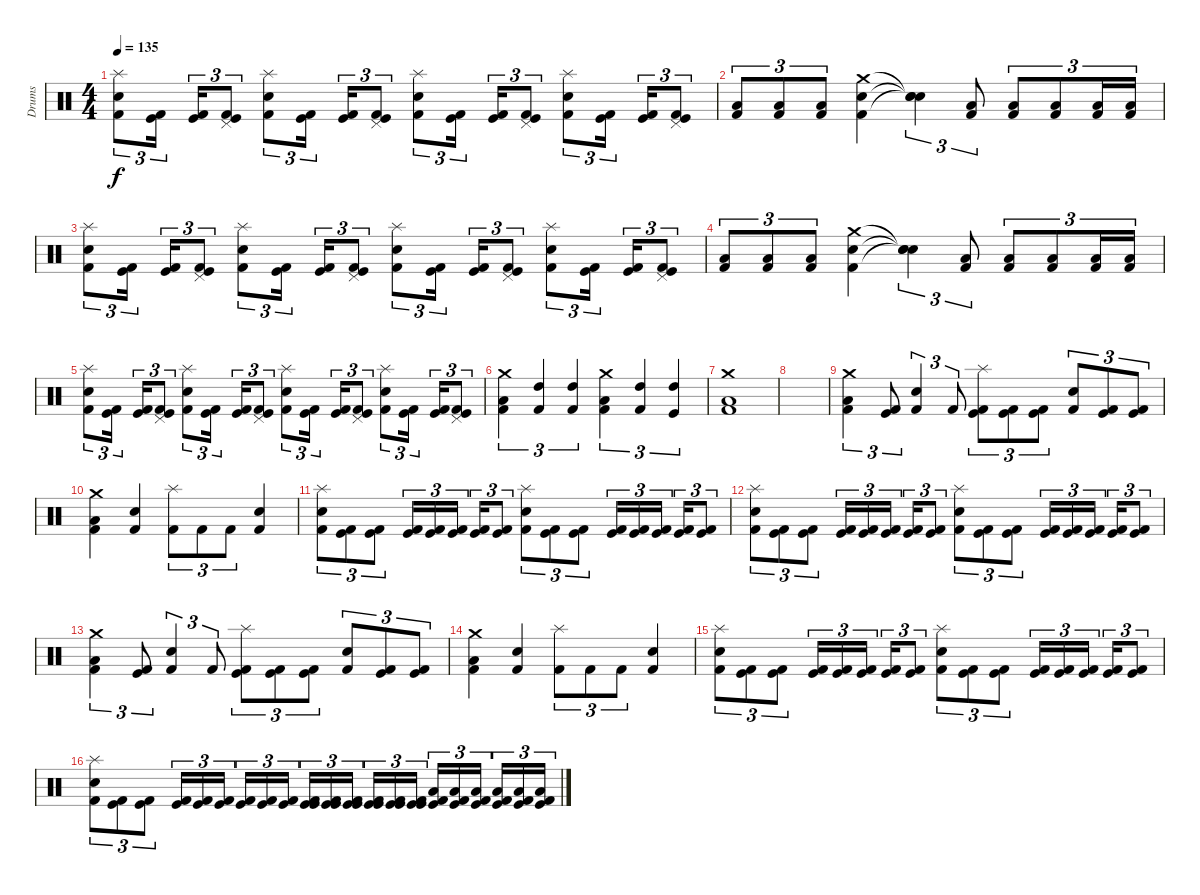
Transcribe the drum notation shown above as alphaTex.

\track ("Drums" "Drums") {instrument percussion}
\staff {score}
\articulation defaults
\ts (4 4)
\tempo 135
\clef neutral
\ks c
("Splash (hit)" "Snare (hit) 2" "Kick (hit) 2").8{tu (3 2) dy f} ("Kick (hit)" "Kick (hit) 2").16{tu (3 2)} ("Kick (hit)" "Kick (hit) 2").16{tu (3 2)} ("Pedal Hi-Hat (hit)" "Kick (hit)" "Kick (hit) 2").8{tu (3 2)} ("Splash (hit)" "Snare (hit) 2" "Kick (hit) 2").8{tu (3 2)} ("Kick (hit)" "Kick (hit) 2").16{tu (3 2)} ("Kick (hit)" "Kick (hit) 2").16{tu (3 2)} ("Pedal Hi-Hat (hit)" "Kick (hit)" "Kick (hit) 2").8{tu (3 2)} ("Splash (hit)" "Snare (hit) 2" "Kick (hit) 2").8{tu (3 2)} ("Kick (hit)" "Kick (hit) 2").16{tu (3 2)} ("Kick (hit)" "Kick (hit) 2").16{tu (3 2)} ("Pedal Hi-Hat (hit)" "Kick (hit)" "Kick (hit) 2").8{tu (3 2)} ("Splash (hit)" "Snare (hit) 2" "Kick (hit) 2").8{tu (3 2)} ("Kick (hit)" "Kick (hit) 2").16{tu (3 2)} ("Kick (hit)" "Kick (hit) 2").16{tu (3 2)} ("Pedal Hi-Hat (hit)" "Kick (hit)" "Kick (hit) 2").8{tu (3 2)} |
("Low Floor Tom (hit)" "Kick (hit) 2").8{tu (3 2)} ("Low Floor Tom (hit)" "Kick (hit) 2").8{tu (3 2)} ("Low Floor Tom (hit)" "Kick (hit) 2").8{tu (3 2)} ("Crash medium (hit)" "Snare (hit) 2" "Kick (hit) 2").4 ("Snare (hit)"{t} "Snare (hit)"{t} "Snare (hit)"{t}).4{tu (3 2)} ("Low Floor Tom (hit)" "Kick (hit) 2").8{tu (3 2)} ("Low Floor Tom (hit)" "Kick (hit) 2").8{tu (3 2)} ("Low Floor Tom (hit)" "Kick (hit) 2").8{tu (3 2)} ("Low Floor Tom (hit)" "Kick (hit) 2").16{tu (3 2)} ("Low Floor Tom (hit)" "Kick (hit) 2").16{tu (3 2)} |
("Splash (hit)" "Snare (hit) 2" "Kick (hit) 2").8{tu (3 2)} ("Kick (hit)" "Kick (hit) 2").16{tu (3 2)} ("Kick (hit)" "Kick (hit) 2").16{tu (3 2)} ("Pedal Hi-Hat (hit)" "Kick (hit)" "Kick (hit) 2").8{tu (3 2)} ("Splash (hit)" "Snare (hit) 2" "Kick (hit) 2").8{tu (3 2)} ("Kick (hit)" "Kick (hit) 2").16{tu (3 2)} ("Kick (hit)" "Kick (hit) 2").16{tu (3 2)} ("Pedal Hi-Hat (hit)" "Kick (hit)" "Kick (hit) 2").8{tu (3 2)} ("Splash (hit)" "Snare (hit) 2" "Kick (hit) 2").8{tu (3 2)} ("Kick (hit)" "Kick (hit) 2").16{tu (3 2)} ("Kick (hit)" "Kick (hit) 2").16{tu (3 2)} ("Pedal Hi-Hat (hit)" "Kick (hit)" "Kick (hit) 2").8{tu (3 2)} ("Splash (hit)" "Snare (hit) 2" "Kick (hit) 2").8{tu (3 2)} ("Kick (hit)" "Kick (hit) 2").16{tu (3 2)} ("Kick (hit)" "Kick (hit) 2").16{tu (3 2)} ("Pedal Hi-Hat (hit)" "Kick (hit)" "Kick (hit) 2").8{tu (3 2)} |
("Low Floor Tom (hit)" "Kick (hit) 2").8{tu (3 2)} ("Low Floor Tom (hit)" "Kick (hit) 2").8{tu (3 2)} ("Low Floor Tom (hit)" "Kick (hit) 2").8{tu (3 2)} ("Crash medium (hit)" "Snare (hit) 2" "Kick (hit) 2").4 ("Snare (hit)"{t} "Snare (hit)"{t} "Snare (hit)"{t}).4{tu (3 2)} ("Low Floor Tom (hit)" "Kick (hit) 2").8{tu (3 2)} ("Low Floor Tom (hit)" "Kick (hit) 2").8{tu (3 2)} ("Low Floor Tom (hit)" "Kick (hit) 2").8{tu (3 2)} ("Low Floor Tom (hit)" "Kick (hit) 2").16{tu (3 2)} ("Low Floor Tom (hit)" "Kick (hit) 2").16{tu (3 2)} |
("Splash (hit)" "Snare (hit) 2" "Kick (hit) 2").8{tu (3 2)} ("Kick (hit)" "Kick (hit) 2").16{tu (3 2)} ("Kick (hit)" "Kick (hit) 2").16{tu (3 2)} ("Pedal Hi-Hat (hit)" "Kick (hit)" "Kick (hit) 2").8{tu (3 2)} ("Splash (hit)" "Snare (hit) 2" "Kick (hit) 2").8{tu (3 2)} ("Kick (hit)" "Kick (hit) 2").16{tu (3 2)} ("Kick (hit)" "Kick (hit) 2").16{tu (3 2)} ("Pedal Hi-Hat (hit)" "Kick (hit)" "Kick (hit) 2").8{tu (3 2)} ("Splash (hit)" "Snare (hit) 2" "Kick (hit) 2").8{tu (3 2)} ("Kick (hit)" "Kick (hit) 2").16{tu (3 2)} ("Kick (hit)" "Kick (hit) 2").16{tu (3 2)} ("Pedal Hi-Hat (hit)" "Kick (hit)" "Kick (hit) 2").8{tu (3 2)} ("Splash (hit)" "Snare (hit) 2" "Kick (hit) 2").8{tu (3 2)} ("Kick (hit)" "Kick (hit) 2").16{tu (3 2)} ("Kick (hit)" "Kick (hit) 2").16{tu (3 2)} ("Pedal Hi-Hat (hit)" "Kick (hit)" "Kick (hit) 2").8{tu (3 2)} |
("Crash medium (hit)" "Low Floor Tom (hit)" "Kick (hit) 2").4{tu (3 2)} ("High Tom (hit)" "Kick (hit) 2").4{tu (3 2)} ("High Tom (hit)" "Kick (hit) 2").4{tu (3 2)} ("Crash medium (hit)" "Low Floor Tom (hit)" "Kick (hit) 2").4{tu (3 2)} ("High Tom (hit)" "Kick (hit) 2").4{tu (3 2)} ("High Tom (hit)" "Kick (hit)").4{tu (3 2)} |
("Crash medium (hit)" "Low Floor Tom (hit)" "Kick (hit) 2").1 |
|
("Crash medium (hit)" "Low Floor Tom (hit)" "Kick (hit) 2").4{tu (3 2)} ("Kick (hit)" "Kick (hit) 2").8{tu (3 2)} ("Snare (hit) 2" "Kick (hit) 2").4{tu (3 2)} "Kick (hit) 2".8{tu (3 2)} ("Splash (hit)" "Kick (hit)" "Kick (hit) 2").8{tu (3 2)} ("Kick (hit)" "Kick (hit) 2").8{tu (3 2)} ("Kick (hit)" "Kick (hit) 2").8{tu (3 2)} ("Snare (hit) 2" "Kick (hit) 2").8{tu (3 2)} ("Kick (hit)" "Kick (hit) 2").8{tu (3 2)} ("Kick (hit)" "Kick (hit) 2").8{tu (3 2)} |
("Crash medium (hit)" "Low Floor Tom (hit)" "Kick (hit) 2").4 ("Snare (hit) 2" "Kick (hit) 2").4 ("Splash (hit)" "Kick (hit) 2").8{tu (3 2)} "Kick (hit) 2".8{tu (3 2)} "Kick (hit) 2".8{tu (3 2)} ("Snare (hit) 2" "Kick (hit) 2").4 |
("Splash (hit)" "Electric Snare (hit)" "Kick (hit) 2").8{tu (3 2)} ("Kick (hit)" "Kick (hit) 2").8{tu (3 2)} ("Kick (hit)" "Kick (hit) 2").8{tu (3 2)} ("Kick (hit)" "Kick (hit) 2").16{tu (3 2)} ("Kick (hit)" "Kick (hit) 2").16{tu (3 2)} ("Kick (hit)" "Kick (hit) 2").16{tu (3 2)} ("Kick (hit)" "Kick (hit) 2").16{tu (3 2)} ("Kick (hit)" "Kick (hit) 2").8{tu (3 2)} ("Splash (hit)" "Electric Snare (hit)" "Kick (hit) 2").8{tu (3 2)} ("Kick (hit)" "Kick (hit) 2").8{tu (3 2)} ("Kick (hit)" "Kick (hit) 2").8{tu (3 2)} ("Kick (hit)" "Kick (hit) 2").16{tu (3 2)} ("Kick (hit)" "Kick (hit) 2").16{tu (3 2)} ("Kick (hit)" "Kick (hit) 2").16{tu (3 2)} ("Kick (hit)" "Kick (hit) 2").16{tu (3 2)} ("Kick (hit)" "Kick (hit) 2").8{tu (3 2)} |
("Splash (hit)" "Electric Snare (hit)" "Kick (hit) 2").8{tu (3 2)} ("Kick (hit)" "Kick (hit) 2").8{tu (3 2)} ("Kick (hit)" "Kick (hit) 2").8{tu (3 2)} ("Kick (hit)" "Kick (hit) 2").16{tu (3 2)} ("Kick (hit)" "Kick (hit) 2").16{tu (3 2)} ("Kick (hit)" "Kick (hit) 2").16{tu (3 2)} ("Kick (hit)" "Kick (hit) 2").16{tu (3 2)} ("Kick (hit)" "Kick (hit) 2").8{tu (3 2)} ("Splash (hit)" "Electric Snare (hit)" "Kick (hit) 2").8{tu (3 2)} ("Kick (hit)" "Kick (hit) 2").8{tu (3 2)} ("Kick (hit)" "Kick (hit) 2").8{tu (3 2)} ("Kick (hit)" "Kick (hit) 2").16{tu (3 2)} ("Kick (hit)" "Kick (hit) 2").16{tu (3 2)} ("Kick (hit)" "Kick (hit) 2").16{tu (3 2)} ("Kick (hit)" "Kick (hit) 2").16{tu (3 2)} ("Kick (hit)" "Kick (hit) 2").8{tu (3 2)} |
("Crash medium (hit)" "Low Floor Tom (hit)" "Kick (hit) 2").4{tu (3 2)} ("Kick (hit)" "Kick (hit) 2").8{tu (3 2)} ("Snare (hit) 2" "Kick (hit) 2").4{tu (3 2)} "Kick (hit) 2".8{tu (3 2)} ("Splash (hit)" "Kick (hit)" "Kick (hit) 2").8{tu (3 2)} ("Kick (hit)" "Kick (hit) 2").8{tu (3 2)} ("Kick (hit)" "Kick (hit) 2").8{tu (3 2)} ("Snare (hit) 2" "Kick (hit) 2").8{tu (3 2)} ("Kick (hit)" "Kick (hit) 2").8{tu (3 2)} ("Kick (hit)" "Kick (hit) 2").8{tu (3 2)} |
("Crash medium (hit)" "Low Floor Tom (hit)" "Kick (hit) 2").4 ("Snare (hit) 2" "Kick (hit) 2").4 ("Splash (hit)" "Kick (hit) 2").8{tu (3 2)} "Kick (hit) 2".8{tu (3 2)} "Kick (hit) 2".8{tu (3 2)} ("Snare (hit) 2" "Kick (hit) 2").4 |
("Splash (hit)" "Electric Snare (hit)" "Kick (hit) 2").8{tu (3 2)} ("Kick (hit)" "Kick (hit) 2").8{tu (3 2)} ("Kick (hit)" "Kick (hit) 2").8{tu (3 2)} ("Kick (hit)" "Kick (hit) 2").16{tu (3 2)} ("Kick (hit)" "Kick (hit) 2").16{tu (3 2)} ("Kick (hit)" "Kick (hit) 2").16{tu (3 2)} ("Kick (hit)" "Kick (hit) 2").16{tu (3 2)} ("Kick (hit)" "Kick (hit) 2").8{tu (3 2)} ("Splash (hit)" "Electric Snare (hit)" "Kick (hit) 2").8{tu (3 2)} ("Kick (hit)" "Kick (hit) 2").8{tu (3 2)} ("Kick (hit)" "Kick (hit) 2").8{tu (3 2)} ("Kick (hit)" "Kick (hit) 2").16{tu (3 2)} ("Kick (hit)" "Kick (hit) 2").16{tu (3 2)} ("Kick (hit)" "Kick (hit) 2").16{tu (3 2)} ("Kick (hit)" "Kick (hit) 2").16{tu (3 2)} ("Kick (hit)" "Kick (hit) 2").8{tu (3 2)} |
("Splash (hit)" "Electric Snare (hit)" "Kick (hit) 2").8{tu (3 2)} ("Kick (hit)" "Kick (hit) 2").8{tu (3 2)} ("Kick (hit)" "Kick (hit) 2").8{tu (3 2)} ("Kick (hit)" "Kick (hit) 2").16{tu (3 2)} ("Kick (hit)" "Kick (hit) 2").16{tu (3 2)} ("Kick (hit)" "Kick (hit) 2").16{tu (3 2)} ("Kick (hit)" "Kick (hit) 2").16{tu (3 2)} ("Kick (hit)" "Kick (hit) 2").16{tu (3 2)} ("Kick (hit)" "Kick (hit) 2").16{tu (3 2)} ("Kick (hit)" "Kick (hit)" "Kick (hit) 2").16{tu (3 2)} ("Kick (hit)" "Kick (hit)" "Kick (hit) 2").16{tu (3 2)} ("Kick (hit)" "Kick (hit)" "Kick (hit) 2").16{tu (3 2)} ("Kick (hit)" "Kick (hit)" "Kick (hit) 2").16{tu (3 2)} ("Kick (hit)" "Kick (hit)" "Kick (hit) 2").16{tu (3 2)} ("Kick (hit)" "Kick (hit)" "Kick (hit) 2").16{tu (3 2)} ("Low Floor Tom (hit)" "Kick (hit)" "Kick (hit) 2").16{tu (3 2)} ("Low Floor Tom (hit)" "Kick (hit)" "Kick (hit) 2").16{tu (3 2)} ("Low Floor Tom (hit)" "Kick (hit)" "Kick (hit) 2").16{tu (3 2)} ("Low Floor Tom (hit)" "Kick (hit)" "Kick (hit) 2").16{tu (3 2)} ("Low Floor Tom (hit)" "Kick (hit)" "Kick (hit) 2").16{tu (3 2)} ("Low Floor Tom (hit)" "Kick (hit)" "Kick (hit) 2").16{tu (3 2)}
